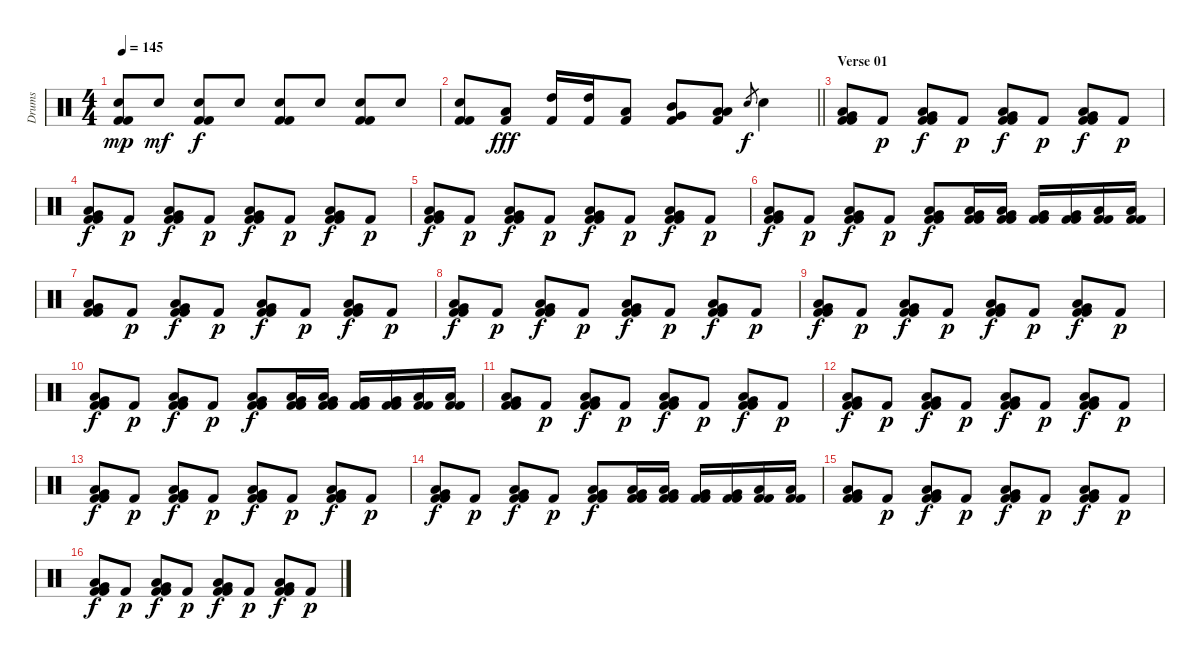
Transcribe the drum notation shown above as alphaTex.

\track ("Drums" "Drums") {instrument percussion}
\staff {score}
\articulation defaults
\ts (4 4)
\tempo 145
\clef neutral
\ks c
("Electric Snare (hit)" "Kick (hit) 2" "Kick (hit) 2").8{dy mp} "Electric Snare (hit)".8{dy mf} ("Electric Snare (hit)" "Kick (hit) 2" "Kick (hit) 2").8{dy f} "Electric Snare (hit)".8 ("Electric Snare (hit)" "Kick (hit) 2" "Kick (hit) 2").8 "Electric Snare (hit)".8 ("Electric Snare (hit)" "Kick (hit) 2" "Kick (hit) 2").8 "Electric Snare (hit)".8 |
\barLineRight lightlight
("Electric Snare (hit)" "Kick (hit) 2" "Kick (hit) 2").8 ("Low Tom (hit)" "Kick (hit) 2").8{dy fff} ("High Tom (hit)" "Kick (hit) 2").16 ("High Tom (hit)" "Kick (hit) 2").16 ("Low Tom (hit)" "Kick (hit) 2").8 ("Mid Tom (hit)" "Very Low Tom (hit)" "Kick (hit) 2").8 ("Low Tom (hit)" "Low Floor Tom (hit)" "Kick (hit) 2").8 "Electric Snare (hit)".8{gr dy f} "Electric Snare (hit)".4 |
\section ("" "Verse 01")
("Very Low Tom (hit)" "Low Floor Tom (hit)" "Kick (hit) 2" "Kick (hit) 2").8 "Kick (hit) 2".8{dy p} ("Very Low Tom (hit)" "Low Floor Tom (hit)" "Kick (hit) 2" "Kick (hit) 2").8{dy f} "Kick (hit) 2".8{dy p} ("Very Low Tom (hit)" "Low Floor Tom (hit)" "Kick (hit) 2" "Kick (hit) 2").8{dy f} "Kick (hit) 2".8{dy p} ("Very Low Tom (hit)" "Low Floor Tom (hit)" "Kick (hit) 2" "Kick (hit) 2").8{dy f} "Kick (hit) 2".8{dy p} |
("Very Low Tom (hit)" "Low Floor Tom (hit)" "Kick (hit) 2" "Kick (hit) 2").8{dy f} "Kick (hit) 2".8{dy p} ("Very Low Tom (hit)" "Low Floor Tom (hit)" "Kick (hit) 2" "Kick (hit) 2").8{dy f} "Kick (hit) 2".8{dy p} ("Very Low Tom (hit)" "Low Floor Tom (hit)" "Kick (hit) 2" "Kick (hit) 2").8{dy f} "Kick (hit) 2".8{dy p} ("Very Low Tom (hit)" "Low Floor Tom (hit)" "Kick (hit) 2" "Kick (hit) 2").8{dy f} "Kick (hit) 2".8{dy p} |
("Very Low Tom (hit)" "Low Floor Tom (hit)" "Kick (hit) 2" "Kick (hit) 2").8{dy f} "Kick (hit) 2".8{dy p} ("Very Low Tom (hit)" "Low Floor Tom (hit)" "Kick (hit) 2" "Kick (hit) 2").8{dy f} "Kick (hit) 2".8{dy p} ("Very Low Tom (hit)" "Low Floor Tom (hit)" "Kick (hit) 2" "Kick (hit) 2").8{dy f} "Kick (hit) 2".8{dy p} ("Very Low Tom (hit)" "Low Floor Tom (hit)" "Kick (hit) 2" "Kick (hit) 2").8{dy f} "Kick (hit) 2".8{dy p} |
("Very Low Tom (hit)" "Low Floor Tom (hit)" "Kick (hit) 2" "Kick (hit) 2").8{dy f} "Kick (hit) 2".8{dy p} ("Very Low Tom (hit)" "Low Floor Tom (hit)" "Kick (hit) 2" "Kick (hit) 2").8{dy f} "Kick (hit) 2".8{dy p} ("Very Low Tom (hit)" "Low Floor Tom (hit)" "Kick (hit) 2" "Kick (hit) 2").8{dy f} ("Very Low Tom (hit)" "Low Floor Tom (hit)" "Kick (hit) 2" "Kick (hit) 2").16 ("Very Low Tom (hit)" "Low Floor Tom (hit)" "Kick (hit) 2" "Kick (hit) 2").16 ("Very Low Tom (hit)" "Kick (hit) 2" "Kick (hit) 2").16 ("Very Low Tom (hit)" "Kick (hit) 2" "Kick (hit) 2").16 ("Low Floor Tom (hit)" "Kick (hit) 2" "Kick (hit) 2").16 ("Low Floor Tom (hit)" "Kick (hit) 2" "Kick (hit) 2").16 |
("Very Low Tom (hit)" "Low Floor Tom (hit)" "Kick (hit) 2" "Kick (hit) 2").8 "Kick (hit) 2".8{dy p} ("Very Low Tom (hit)" "Low Floor Tom (hit)" "Kick (hit) 2" "Kick (hit) 2").8{dy f} "Kick (hit) 2".8{dy p} ("Very Low Tom (hit)" "Low Floor Tom (hit)" "Kick (hit) 2" "Kick (hit) 2").8{dy f} "Kick (hit) 2".8{dy p} ("Very Low Tom (hit)" "Low Floor Tom (hit)" "Kick (hit) 2" "Kick (hit) 2").8{dy f} "Kick (hit) 2".8{dy p} |
("Very Low Tom (hit)" "Low Floor Tom (hit)" "Kick (hit) 2" "Kick (hit) 2").8{dy f} "Kick (hit) 2".8{dy p} ("Very Low Tom (hit)" "Low Floor Tom (hit)" "Kick (hit) 2" "Kick (hit) 2").8{dy f} "Kick (hit) 2".8{dy p} ("Very Low Tom (hit)" "Low Floor Tom (hit)" "Kick (hit) 2" "Kick (hit) 2").8{dy f} "Kick (hit) 2".8{dy p} ("Very Low Tom (hit)" "Low Floor Tom (hit)" "Kick (hit) 2" "Kick (hit) 2").8{dy f} "Kick (hit) 2".8{dy p} |
("Very Low Tom (hit)" "Low Floor Tom (hit)" "Kick (hit) 2" "Kick (hit) 2").8{dy f} "Kick (hit) 2".8{dy p} ("Very Low Tom (hit)" "Low Floor Tom (hit)" "Kick (hit) 2" "Kick (hit) 2").8{dy f} "Kick (hit) 2".8{dy p} ("Very Low Tom (hit)" "Low Floor Tom (hit)" "Kick (hit) 2" "Kick (hit) 2").8{dy f} "Kick (hit) 2".8{dy p} ("Very Low Tom (hit)" "Low Floor Tom (hit)" "Kick (hit) 2" "Kick (hit) 2").8{dy f} "Kick (hit) 2".8{dy p} |
("Very Low Tom (hit)" "Low Floor Tom (hit)" "Kick (hit) 2" "Kick (hit) 2").8{dy f} "Kick (hit) 2".8{dy p} ("Very Low Tom (hit)" "Low Floor Tom (hit)" "Kick (hit) 2" "Kick (hit) 2").8{dy f} "Kick (hit) 2".8{dy p} ("Very Low Tom (hit)" "Low Floor Tom (hit)" "Kick (hit) 2" "Kick (hit) 2").8{dy f} ("Very Low Tom (hit)" "Low Floor Tom (hit)" "Kick (hit) 2" "Kick (hit) 2").16 ("Very Low Tom (hit)" "Low Floor Tom (hit)" "Kick (hit) 2" "Kick (hit) 2").16 ("Very Low Tom (hit)" "Kick (hit) 2" "Kick (hit) 2").16 ("Very Low Tom (hit)" "Kick (hit) 2" "Kick (hit) 2").16 ("Low Floor Tom (hit)" "Kick (hit) 2" "Kick (hit) 2").16 ("Low Floor Tom (hit)" "Kick (hit) 2" "Kick (hit) 2").16 |
("Very Low Tom (hit)" "Low Floor Tom (hit)" "Kick (hit) 2" "Kick (hit) 2").8 "Kick (hit) 2".8{dy p} ("Very Low Tom (hit)" "Low Floor Tom (hit)" "Kick (hit) 2" "Kick (hit) 2").8{dy f} "Kick (hit) 2".8{dy p} ("Very Low Tom (hit)" "Low Floor Tom (hit)" "Kick (hit) 2" "Kick (hit) 2").8{dy f} "Kick (hit) 2".8{dy p} ("Very Low Tom (hit)" "Low Floor Tom (hit)" "Kick (hit) 2" "Kick (hit) 2").8{dy f} "Kick (hit) 2".8{dy p} |
("Very Low Tom (hit)" "Low Floor Tom (hit)" "Kick (hit) 2" "Kick (hit) 2").8{dy f} "Kick (hit) 2".8{dy p} ("Very Low Tom (hit)" "Low Floor Tom (hit)" "Kick (hit) 2" "Kick (hit) 2").8{dy f} "Kick (hit) 2".8{dy p} ("Very Low Tom (hit)" "Low Floor Tom (hit)" "Kick (hit) 2" "Kick (hit) 2").8{dy f} "Kick (hit) 2".8{dy p} ("Very Low Tom (hit)" "Low Floor Tom (hit)" "Kick (hit) 2" "Kick (hit) 2").8{dy f} "Kick (hit) 2".8{dy p} |
("Very Low Tom (hit)" "Low Floor Tom (hit)" "Kick (hit) 2" "Kick (hit) 2").8{dy f} "Kick (hit) 2".8{dy p} ("Very Low Tom (hit)" "Low Floor Tom (hit)" "Kick (hit) 2" "Kick (hit) 2").8{dy f} "Kick (hit) 2".8{dy p} ("Very Low Tom (hit)" "Low Floor Tom (hit)" "Kick (hit) 2" "Kick (hit) 2").8{dy f} "Kick (hit) 2".8{dy p} ("Very Low Tom (hit)" "Low Floor Tom (hit)" "Kick (hit) 2" "Kick (hit) 2").8{dy f} "Kick (hit) 2".8{dy p} |
("Very Low Tom (hit)" "Low Floor Tom (hit)" "Kick (hit) 2" "Kick (hit) 2").8{dy f} "Kick (hit) 2".8{dy p} ("Very Low Tom (hit)" "Low Floor Tom (hit)" "Kick (hit) 2" "Kick (hit) 2").8{dy f} "Kick (hit) 2".8{dy p} ("Very Low Tom (hit)" "Low Floor Tom (hit)" "Kick (hit) 2" "Kick (hit) 2").8{dy f} ("Very Low Tom (hit)" "Low Floor Tom (hit)" "Kick (hit) 2" "Kick (hit) 2").16 ("Very Low Tom (hit)" "Low Floor Tom (hit)" "Kick (hit) 2" "Kick (hit) 2").16 ("Very Low Tom (hit)" "Kick (hit) 2" "Kick (hit) 2").16 ("Very Low Tom (hit)" "Kick (hit) 2" "Kick (hit) 2").16 ("Low Floor Tom (hit)" "Kick (hit) 2" "Kick (hit) 2").16 ("Low Floor Tom (hit)" "Kick (hit) 2" "Kick (hit) 2").16 |
("Very Low Tom (hit)" "Low Floor Tom (hit)" "Kick (hit) 2" "Kick (hit) 2").8 "Kick (hit) 2".8{dy p} ("Very Low Tom (hit)" "Low Floor Tom (hit)" "Kick (hit) 2" "Kick (hit) 2").8{dy f} "Kick (hit) 2".8{dy p} ("Very Low Tom (hit)" "Low Floor Tom (hit)" "Kick (hit) 2" "Kick (hit) 2").8{dy f} "Kick (hit) 2".8{dy p} ("Very Low Tom (hit)" "Low Floor Tom (hit)" "Kick (hit) 2" "Kick (hit) 2").8{dy f} "Kick (hit) 2".8{dy p} |
("Very Low Tom (hit)" "Low Floor Tom (hit)" "Kick (hit) 2" "Kick (hit) 2").8{dy f} "Kick (hit) 2".8{dy p} ("Very Low Tom (hit)" "Low Floor Tom (hit)" "Kick (hit) 2" "Kick (hit) 2").8{dy f} "Kick (hit) 2".8{dy p} ("Very Low Tom (hit)" "Low Floor Tom (hit)" "Kick (hit) 2" "Kick (hit) 2").8{dy f} "Kick (hit) 2".8{dy p} ("Very Low Tom (hit)" "Low Floor Tom (hit)" "Kick (hit) 2" "Kick (hit) 2").8{dy f} "Kick (hit) 2".8{dy p}
